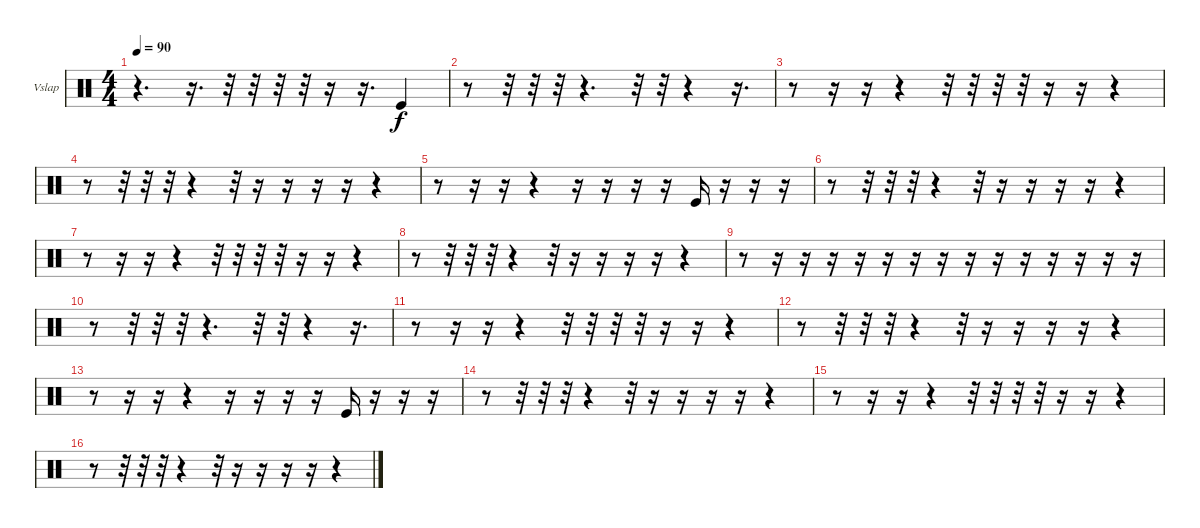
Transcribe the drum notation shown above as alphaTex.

\defaultSystemsLayout 4
\bracketExtendMode groupsimilarinstruments
\firstSystemTrackNameOrientation horizontal
\otherSystemsTrackNameOrientation horizontal
\track ("Vibraslap" "Vslap") {instrument percussion}
\staff {score}
\articulation defaults
\ts (4 4)
\tempo 90
\clef neutral
\scale
0.472222
\ks c
r.4{d dy f} r.16{d} r.32 r.32 r.32 r.32 r.16 r.16{d} "Kick (hit)".4 |
\scale
0.263889 r.8 r.32 r.32 r.32 r.4{d} r.32 r.32 r.4 r.16{d} |
\scale
0.263889 r.8 r.16 r.16 r.4 r.32 r.32 r.32 r.32 r.16 r.16 r.4 |
\scale
0.333333 r.8 r.32 r.32 r.32 r.4 r.32 r.16 r.16 r.16 r.16 r.4 |
\scale
0.333333 r.8 r.16 r.16 r.4 r.16 r.16 r.16 r.16 "Kick (hit)".16 r.16 r.16 r.16 |
\scale
0.333333 r.8 r.32 r.32 r.32 r.4 r.32 r.16 r.16 r.16 r.16 r.4 |
\scale
0.333333 r.8 r.16 r.16 r.4 r.32 r.32 r.32 r.32 r.16 r.16 r.4 |
\scale
0.333333 r.8 r.32 r.32 r.32 r.4 r.32 r.16 r.16 r.16 r.16 r.4 |
\scale
0.333333 r.8 r.16 r.16 r.16 r.16 r.16 r.16 r.16 r.16 r.16 r.16 r.16 r.16 r.16 r.16 |
\scale
0.333333 r.8 r.32 r.32 r.32 r.4{d} r.32 r.32 r.4 r.16{d} |
\scale
0.333333 r.8 r.16 r.16 r.4 r.32 r.32 r.32 r.32 r.16 r.16 r.4 |
\scale
0.333333 r.8 r.32 r.32 r.32 r.4 r.32 r.16 r.16 r.16 r.16 r.4 |
\scale
0.333333 r.8 r.16 r.16 r.4 r.16 r.16 r.16 r.16 "Kick (hit)".16 r.16 r.16 r.16 |
\scale
0.333333 r.8 r.32 r.32 r.32 r.4 r.32 r.16 r.16 r.16 r.16 r.4 |
\scale
0.333333 r.8 r.16 r.16 r.4 r.32 r.32 r.32 r.32 r.16 r.16 r.4 |
\scale
0.333333 r.8 r.32 r.32 r.32 r.4 r.32 r.16 r.16 r.16 r.16 r.4
